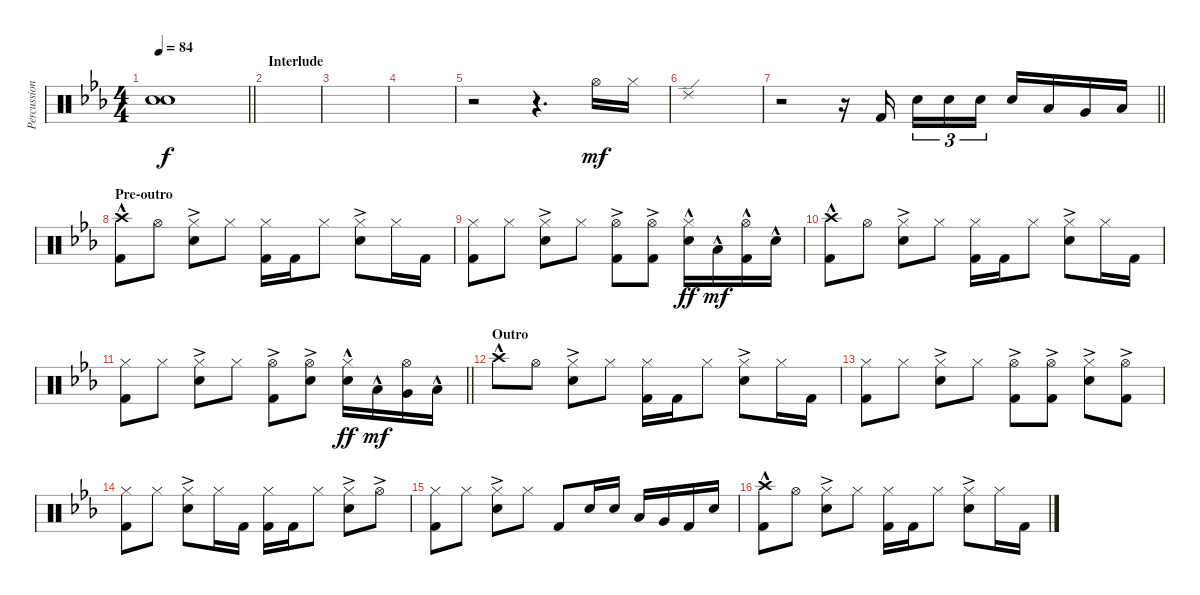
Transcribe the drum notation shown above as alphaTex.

\track ("Percussion" "Percussion") {instrument percussion}
\staff {score}
\articulation defaults
\ts (4 4)
\tempo 84
\clef neutral
\barLineRight lightlight
\ks cminor
("Snare (hit)"{t} "Snare (hit)"{t}).1{dy f} |
\section ("" "Interlude")
|
|
|
r.2 r.4{d} "Hi-Hat (open)".16{dy mf} "Hi-Hat (closed)".16 |
"Ride (edge) 2".1 |
\barLineRight lightlight
r.2 r.16 "Kick (hit) 2".16{beam splitsecondary} "Snare (hit) 2".16{tu (3 2)} "Snare (hit) 2".16{tu (3 2)} "Snare (hit) 2".16{tu (3 2)} "Snare (hit) 2".16 "Low Tom (hit)".16 "Very Low Tom (hit)".16 "Low Floor Tom (hit)".16 |
\section ("" "Pre-outro")
("Crash high (hit)"{hac} "Kick (hit) 2").8 "Hi-Hat (open)".8 ("Hi-Hat (closed)" "Snare (hit) 2"{ac}).8 "Hi-Hat (closed)".8 ("Hi-Hat (closed)" "Kick (hit) 2").16 "Kick (hit) 2".16 "Hi-Hat (closed)".8 ("Hi-Hat (closed)" "Snare (hit) 2"{ac}).8 "Hi-Hat (closed)".16 "Kick (hit) 2".16 |
("Hi-Hat (closed)" "Kick (hit) 2").8 "Hi-Hat (closed)".8 ("Hi-Hat (closed)" "Snare (hit) 2"{ac}).8 "Hi-Hat (closed)".8 ("Hi-Hat (open)"{ac} "Kick (hit) 2").8 ("Hi-Hat (open)"{ac} "Kick (hit) 2").8 ("Hi-Hat (closed)" "Snare (hit) 2"{hac}).16{dy ff} "Low Tom (hit)"{hac}.16{dy mf} ("Hi-Hat (open)" "Kick (hit) 2"{hac}).16 "Snare (hit) 2"{hac}.16 |
("Crash high (hit)"{hac} "Kick (hit) 2").8 "Hi-Hat (open)".8 ("Hi-Hat (closed)" "Snare (hit) 2"{ac}).8 "Hi-Hat (closed)".8 ("Hi-Hat (closed)" "Kick (hit) 2").16 "Kick (hit) 2".16 "Hi-Hat (closed)".8 ("Hi-Hat (closed)" "Snare (hit) 2"{ac}).8 "Hi-Hat (closed)".16 "Kick (hit) 2".16 |
\barLineRight lightlight
("Hi-Hat (closed)" "Kick (hit) 2").8 "Hi-Hat (closed)".8 ("Hi-Hat (closed)" "Snare (hit) 2"{ac}).8 "Hi-Hat (closed)".8 ("Hi-Hat (open)"{ac} "Kick (hit) 2").8 ("Hi-Hat (open)"{ac} "Electric Snare (hit)").8 ("Hi-Hat (closed)" "Electric Snare (hit)"{hac}).16{dy ff} "Low Tom (hit)"{hac}.16{dy mf} ("Hi-Hat (open)" "Very Low Tom (hit)").16 "Low Floor Tom (hit)"{hac}.16 |
\section ("" "Outro")
"Crash high (hit)"{hac}.8 "Hi-Hat (open)".8 ("Hi-Hat (closed)" "Snare (hit) 2"{ac}).8 "Hi-Hat (closed)".8 ("Hi-Hat (closed)" "Kick (hit) 2").16 "Kick (hit) 2".16 "Hi-Hat (closed)".8 ("Hi-Hat (closed)" "Snare (hit) 2"{ac}).8 "Hi-Hat (closed)".16 "Kick (hit) 2".16 |
("Hi-Hat (closed)" "Kick (hit) 2").8 "Hi-Hat (closed)".8 ("Hi-Hat (closed)" "Snare (hit) 2"{ac}).8 "Hi-Hat (closed)".8 ("Hi-Hat (open)"{ac} "Kick (hit) 2").8 ("Hi-Hat (open)"{ac} "Kick (hit) 2").8 ("Hi-Hat (closed)" "Snare (hit) 2"{ac}).8 ("Hi-Hat (open)"{ac} "Kick (hit) 2").8 |
("Hi-Hat (closed)" "Kick (hit) 2").8 "Hi-Hat (closed)".8 ("Hi-Hat (closed)" "Snare (hit) 2"{ac}).8 "Hi-Hat (closed)".16 "Kick (hit) 2".16 ("Hi-Hat (closed)" "Kick (hit) 2").16 "Kick (hit) 2".16 "Hi-Hat (closed)".8 ("Hi-Hat (closed)" "Snare (hit) 2"{ac}).8 "Hi-Hat (open)"{ac}.8 |
("Hi-Hat (closed)" "Kick (hit) 2").8 "Hi-Hat (closed)".8 ("Hi-Hat (closed)" "Snare (hit) 2"{ac}).8 "Hi-Hat (closed)".8 "Kick (hit) 2".8 "Snare (hit) 2".16 "Snare (hit) 2".16 "Low Tom (hit)".16 "Very Low Tom (hit)".16 "Kick (hit) 2".16 "Snare (hit) 2".16 |
("Crash high (hit)"{hac} "Kick (hit) 2").8 "Hi-Hat (open)".8 ("Hi-Hat (closed)" "Snare (hit) 2"{ac}).8 "Hi-Hat (closed)".8 ("Hi-Hat (closed)" "Kick (hit) 2").16 "Kick (hit) 2".16 "Hi-Hat (closed)".8 ("Hi-Hat (closed)" "Snare (hit) 2"{ac}).8 "Hi-Hat (closed)".16 "Kick (hit) 2".16
